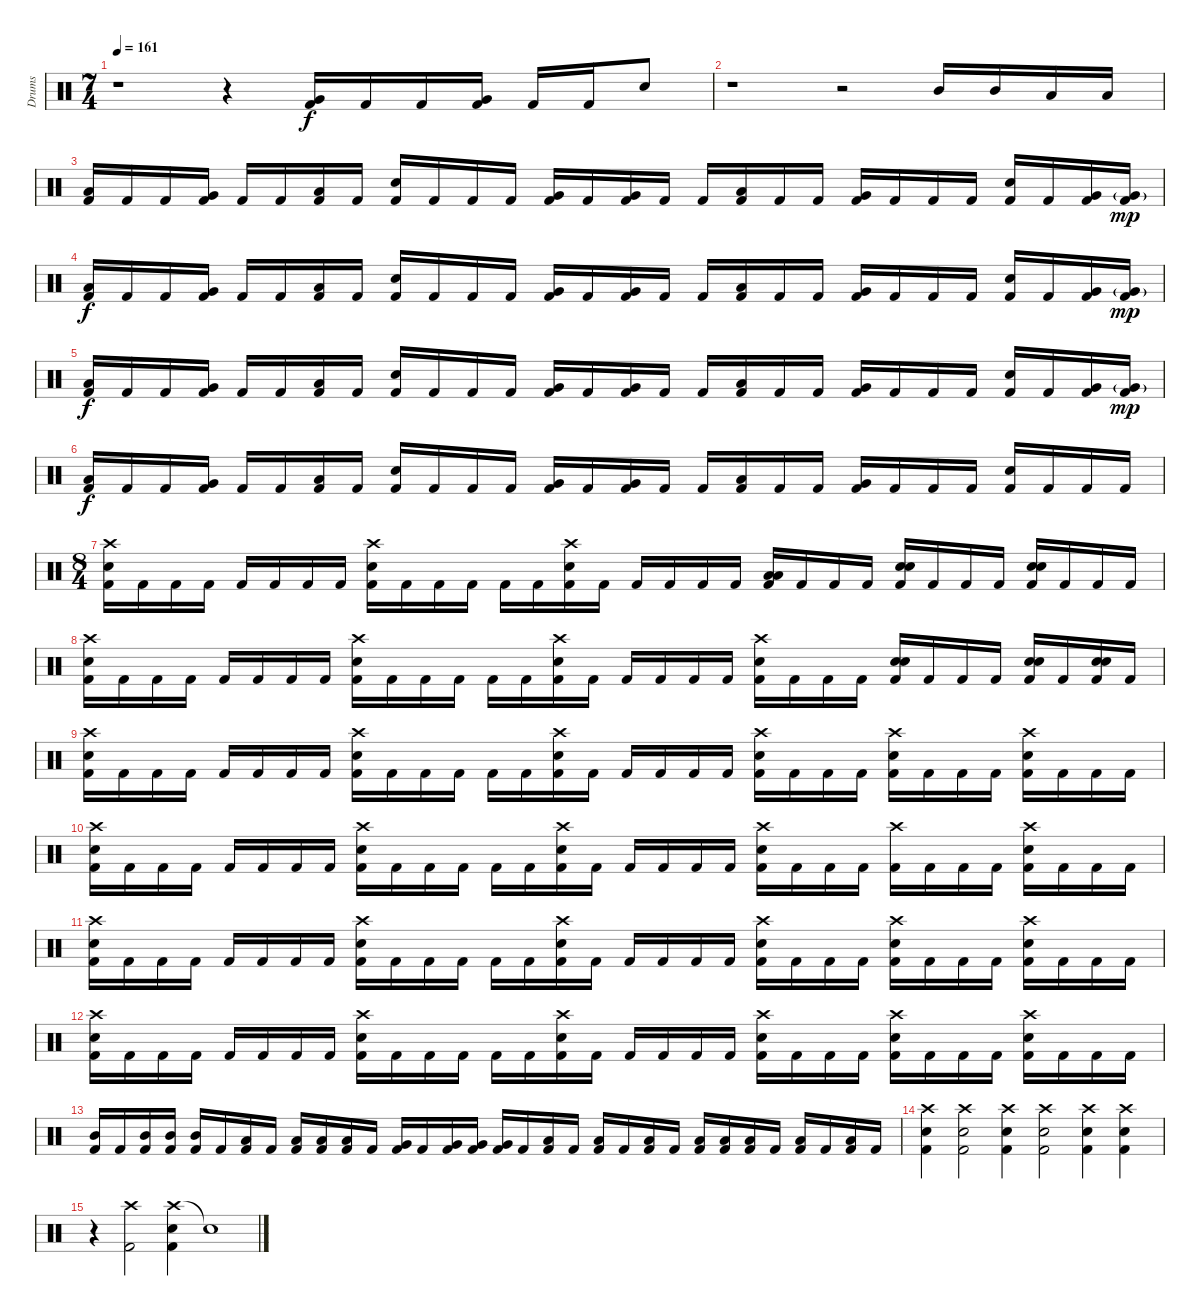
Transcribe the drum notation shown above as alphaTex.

\track ("Drums" "Drums") {instrument percussion}
\staff {score}
\articulation defaults
\ts (7 4)
\tempo 161
\clef neutral
\ks c
r.1{dy f} r.4 ("Very Low Tom (hit)" "Kick (hit) 2").16 "Kick (hit) 2".16 "Kick (hit) 2".16 ("Very Low Tom (hit)" "Kick (hit) 2").16 "Kick (hit) 2".16 "Kick (hit) 2".16 "Snare (hit) 2".8 |
r.1 r.2 "Mid Tom (hit)".16 "Mid Tom (hit)".16 "Low Tom (hit)".16 "Low Tom (hit)".16 |
("Low Floor Tom (hit)" "Kick (hit) 2").16 "Kick (hit) 2".16 "Kick (hit) 2".16 ("Very Low Tom (hit)" "Kick (hit) 2").16 "Kick (hit) 2".16 "Kick (hit) 2".16 ("Low Floor Tom (hit)" "Kick (hit) 2").16 "Kick (hit) 2".16 ("Snare (hit) 2" "Kick (hit) 2").16 "Kick (hit) 2".16 "Kick (hit) 2".16 "Kick (hit) 2".16 ("Very Low Tom (hit)" "Kick (hit) 2").16 "Kick (hit) 2".16 ("Very Low Tom (hit)" "Kick (hit) 2").16 "Kick (hit) 2".16 "Kick (hit) 2".16 ("Low Floor Tom (hit)" "Kick (hit) 2").16 "Kick (hit) 2".16 "Kick (hit) 2".16 ("Very Low Tom (hit)" "Kick (hit) 2").16 "Kick (hit) 2".16 "Kick (hit) 2".16 "Kick (hit) 2".16 ("Snare (hit) 2" "Kick (hit) 2").16 "Kick (hit) 2".16 ("Very Low Tom (hit)" "Kick (hit) 2").16 ("Very Low Tom (hit)"{g} "Kick (hit) 2").16{dy mp} |
("Low Floor Tom (hit)" "Kick (hit) 2").16{dy f} "Kick (hit) 2".16 "Kick (hit) 2".16 ("Very Low Tom (hit)" "Kick (hit) 2").16 "Kick (hit) 2".16 "Kick (hit) 2".16 ("Low Floor Tom (hit)" "Kick (hit) 2").16 "Kick (hit) 2".16 ("Snare (hit) 2" "Kick (hit) 2").16 "Kick (hit) 2".16 "Kick (hit) 2".16 "Kick (hit) 2".16 ("Very Low Tom (hit)" "Kick (hit) 2").16 "Kick (hit) 2".16 ("Very Low Tom (hit)" "Kick (hit) 2").16 "Kick (hit) 2".16 "Kick (hit) 2".16 ("Low Floor Tom (hit)" "Kick (hit) 2").16 "Kick (hit) 2".16 "Kick (hit) 2".16 ("Very Low Tom (hit)" "Kick (hit) 2").16 "Kick (hit) 2".16 "Kick (hit) 2".16 "Kick (hit) 2".16 ("Snare (hit) 2" "Kick (hit) 2").16 "Kick (hit) 2".16 ("Very Low Tom (hit)" "Kick (hit) 2").16 ("Very Low Tom (hit)"{g} "Kick (hit) 2").16{dy mp} |
("Low Floor Tom (hit)" "Kick (hit) 2").16{dy f} "Kick (hit) 2".16 "Kick (hit) 2".16 ("Very Low Tom (hit)" "Kick (hit) 2").16 "Kick (hit) 2".16 "Kick (hit) 2".16 ("Low Floor Tom (hit)" "Kick (hit) 2").16 "Kick (hit) 2".16 ("Snare (hit) 2" "Kick (hit) 2").16 "Kick (hit) 2".16 "Kick (hit) 2".16 "Kick (hit) 2".16 ("Very Low Tom (hit)" "Kick (hit) 2").16 "Kick (hit) 2".16 ("Very Low Tom (hit)" "Kick (hit) 2").16 "Kick (hit) 2".16 "Kick (hit) 2".16 ("Low Floor Tom (hit)" "Kick (hit) 2").16 "Kick (hit) 2".16 "Kick (hit) 2".16 ("Very Low Tom (hit)" "Kick (hit) 2").16 "Kick (hit) 2".16 "Kick (hit) 2".16 "Kick (hit) 2".16 ("Snare (hit) 2" "Kick (hit) 2").16 "Kick (hit) 2".16 ("Very Low Tom (hit)" "Kick (hit) 2").16 ("Very Low Tom (hit)"{g} "Kick (hit) 2").16{dy mp} |
("Low Floor Tom (hit)" "Kick (hit) 2").16{dy f} "Kick (hit) 2".16 "Kick (hit) 2".16 ("Very Low Tom (hit)" "Kick (hit) 2").16 "Kick (hit) 2".16 "Kick (hit) 2".16 ("Low Floor Tom (hit)" "Kick (hit) 2").16 "Kick (hit) 2".16 ("Snare (hit) 2" "Kick (hit) 2").16 "Kick (hit) 2".16 "Kick (hit) 2".16 "Kick (hit) 2".16 ("Very Low Tom (hit)" "Kick (hit) 2").16 "Kick (hit) 2".16 ("Very Low Tom (hit)" "Kick (hit) 2").16 "Kick (hit) 2".16 "Kick (hit) 2".16 ("Low Floor Tom (hit)" "Kick (hit) 2").16 "Kick (hit) 2".16 "Kick (hit) 2".16 ("Very Low Tom (hit)" "Kick (hit) 2").16 "Kick (hit) 2".16 "Kick (hit) 2".16 "Kick (hit) 2".16 ("Snare (hit) 2" "Kick (hit) 2").16 "Kick (hit) 2".16 "Kick (hit) 2".16 "Kick (hit) 2".16 |
\ts (8 4)
("Crash high (hit)" "Snare (hit) 2" "Kick (hit) 2").16 "Kick (hit) 2".16 "Kick (hit) 2".16 "Kick (hit) 2".16 "Kick (hit) 2".16 "Kick (hit) 2".16 "Kick (hit) 2".16 "Kick (hit) 2".16 ("Crash high (hit)" "Snare (hit) 2" "Kick (hit) 2").16 "Kick (hit) 2".16 "Kick (hit) 2".16 "Kick (hit) 2".16 "Kick (hit) 2".16 "Kick (hit) 2".16 ("Crash high (hit)" "Snare (hit) 2" "Kick (hit) 2").16 "Kick (hit) 2".16 "Kick (hit) 2".16 "Kick (hit) 2".16 "Kick (hit) 2".16 "Kick (hit) 2".16 ("Low Tom (hit)" "Low Tom (hit)" "Kick (hit) 2").16 "Kick (hit) 2".16 "Kick (hit) 2".16 "Kick (hit) 2".16 ("Snare (hit) 2" "Snare (hit) 2" "Kick (hit) 2").16 "Kick (hit) 2".16 "Kick (hit) 2".16 "Kick (hit) 2".16 ("Snare (hit) 2" "Snare (hit) 2" "Kick (hit) 2").16 "Kick (hit) 2".16 "Kick (hit) 2".16 "Kick (hit) 2".16 |
("Crash high (hit)" "Snare (hit) 2" "Kick (hit) 2").16 "Kick (hit) 2".16 "Kick (hit) 2".16 "Kick (hit) 2".16 "Kick (hit) 2".16 "Kick (hit) 2".16 "Kick (hit) 2".16 "Kick (hit) 2".16 ("Crash high (hit)" "Snare (hit) 2" "Kick (hit) 2").16 "Kick (hit) 2".16 "Kick (hit) 2".16 "Kick (hit) 2".16 "Kick (hit) 2".16 "Kick (hit) 2".16 ("Crash high (hit)" "Snare (hit) 2" "Kick (hit) 2").16 "Kick (hit) 2".16 "Kick (hit) 2".16 "Kick (hit) 2".16 "Kick (hit) 2".16 "Kick (hit) 2".16 ("Crash high (hit)" "Snare (hit) 2" "Kick (hit) 2").16 "Kick (hit) 2".16 "Kick (hit) 2".16 "Kick (hit) 2".16 ("Snare (hit) 2" "Snare (hit) 2" "Kick (hit) 2").16 "Kick (hit) 2".16 "Kick (hit) 2".16 "Kick (hit) 2".16 ("Snare (hit) 2" "Snare (hit) 2" "Kick (hit) 2").16 "Kick (hit) 2".16 ("Snare (hit) 2" "Snare (hit) 2" "Kick (hit) 2").16 "Kick (hit) 2".16 |
("Crash high (hit)" "Snare (hit) 2" "Kick (hit) 2").16 "Kick (hit) 2".16 "Kick (hit) 2".16 "Kick (hit) 2".16 "Kick (hit) 2".16 "Kick (hit) 2".16 "Kick (hit) 2".16 "Kick (hit) 2".16 ("Crash high (hit)" "Snare (hit) 2" "Kick (hit) 2").16 "Kick (hit) 2".16 "Kick (hit) 2".16 "Kick (hit) 2".16 "Kick (hit) 2".16 "Kick (hit) 2".16 ("Crash high (hit)" "Snare (hit) 2" "Kick (hit) 2").16 "Kick (hit) 2".16 "Kick (hit) 2".16 "Kick (hit) 2".16 "Kick (hit) 2".16 "Kick (hit) 2".16 ("Crash high (hit)" "Snare (hit) 2" "Kick (hit) 2").16 "Kick (hit) 2".16 "Kick (hit) 2".16 "Kick (hit) 2".16 ("Crash high (hit)" "Snare (hit) 2" "Kick (hit) 2").16 "Kick (hit) 2".16 "Kick (hit) 2".16 "Kick (hit) 2".16 ("Crash high (hit)" "Snare (hit) 2" "Kick (hit) 2").16 "Kick (hit) 2".16 "Kick (hit) 2".16 "Kick (hit) 2".16 |
("Crash high (hit)" "Snare (hit) 2" "Kick (hit) 2").16 "Kick (hit) 2".16 "Kick (hit) 2".16 "Kick (hit) 2".16 "Kick (hit) 2".16 "Kick (hit) 2".16 "Kick (hit) 2".16 "Kick (hit) 2".16 ("Crash high (hit)" "Snare (hit) 2" "Kick (hit) 2").16 "Kick (hit) 2".16 "Kick (hit) 2".16 "Kick (hit) 2".16 "Kick (hit) 2".16 "Kick (hit) 2".16 ("Crash high (hit)" "Snare (hit) 2" "Kick (hit) 2").16 "Kick (hit) 2".16 "Kick (hit) 2".16 "Kick (hit) 2".16 "Kick (hit) 2".16 "Kick (hit) 2".16 ("Crash high (hit)" "Snare (hit) 2" "Kick (hit) 2").16 "Kick (hit) 2".16 "Kick (hit) 2".16 "Kick (hit) 2".16 ("Crash high (hit)" "Kick (hit) 2").16 "Kick (hit) 2".16 "Kick (hit) 2".16 "Kick (hit) 2".16 ("Crash high (hit)" "Snare (hit) 2" "Kick (hit) 2").16 "Kick (hit) 2".16 "Kick (hit) 2".16 "Kick (hit) 2".16 |
("Crash high (hit)" "Snare (hit) 2" "Kick (hit) 2").16 "Kick (hit) 2".16 "Kick (hit) 2".16 "Kick (hit) 2".16 "Kick (hit) 2".16 "Kick (hit) 2".16 "Kick (hit) 2".16 "Kick (hit) 2".16 ("Crash high (hit)" "Snare (hit) 2" "Kick (hit) 2").16 "Kick (hit) 2".16 "Kick (hit) 2".16 "Kick (hit) 2".16 "Kick (hit) 2".16 "Kick (hit) 2".16 ("Crash high (hit)" "Snare (hit) 2" "Kick (hit) 2").16 "Kick (hit) 2".16 "Kick (hit) 2".16 "Kick (hit) 2".16 "Kick (hit) 2".16 "Kick (hit) 2".16 ("Crash high (hit)" "Snare (hit) 2" "Kick (hit) 2").16 "Kick (hit) 2".16 "Kick (hit) 2".16 "Kick (hit) 2".16 ("Crash high (hit)" "Snare (hit) 2" "Kick (hit) 2").16 "Kick (hit) 2".16 "Kick (hit) 2".16 "Kick (hit) 2".16 ("Crash high (hit)" "Snare (hit) 2" "Kick (hit) 2").16 "Kick (hit) 2".16 "Kick (hit) 2".16 "Kick (hit) 2".16 |
("Crash high (hit)" "Snare (hit) 2" "Kick (hit) 2").16 "Kick (hit) 2".16 "Kick (hit) 2".16 "Kick (hit) 2".16 "Kick (hit) 2".16 "Kick (hit) 2".16 "Kick (hit) 2".16 "Kick (hit) 2".16 ("Crash high (hit)" "Snare (hit) 2" "Kick (hit) 2").16 "Kick (hit) 2".16 "Kick (hit) 2".16 "Kick (hit) 2".16 "Kick (hit) 2".16 "Kick (hit) 2".16 ("Crash high (hit)" "Snare (hit) 2" "Kick (hit) 2").16 "Kick (hit) 2".16 "Kick (hit) 2".16 "Kick (hit) 2".16 "Kick (hit) 2".16 "Kick (hit) 2".16 ("Crash high (hit)" "Snare (hit) 2" "Kick (hit) 2").16 "Kick (hit) 2".16 "Kick (hit) 2".16 "Kick (hit) 2".16 ("Crash high (hit)" "Snare (hit) 2" "Kick (hit) 2").16 "Kick (hit) 2".16 "Kick (hit) 2".16 "Kick (hit) 2".16 ("Crash high (hit)" "Snare (hit) 2" "Kick (hit) 2").16 "Kick (hit) 2".16 "Kick (hit) 2".16 "Kick (hit) 2".16 |
("Mid Tom (hit)" "Kick (hit) 2").16 "Kick (hit) 2".16 ("Mid Tom (hit)" "Kick (hit) 2").16 ("Mid Tom (hit)" "Kick (hit) 2").16 ("Mid Tom (hit)" "Kick (hit) 2").16 "Kick (hit) 2".16 ("Low Tom (hit)" "Kick (hit) 2").16 "Kick (hit) 2".16 ("Low Tom (hit)" "Kick (hit) 2").16 ("Low Tom (hit)" "Kick (hit) 2").16 ("Low Tom (hit)" "Kick (hit) 2").16 "Kick (hit) 2".16 ("Very Low Tom (hit)" "Kick (hit) 2").16 "Kick (hit) 2".16 ("Very Low Tom (hit)" "Kick (hit) 2").16 ("Very Low Tom (hit)" "Kick (hit) 2").16 ("Very Low Tom (hit)" "Kick (hit) 2").16 "Kick (hit) 2".16 ("Low Floor Tom (hit)" "Kick (hit) 2").16 "Kick (hit) 2".16 ("Low Floor Tom (hit)" "Kick (hit) 2").16 "Kick (hit) 2".16 ("Low Floor Tom (hit)" "Kick (hit) 2").16 "Kick (hit) 2".16 ("Low Floor Tom (hit)" "Kick (hit) 2").16 ("Low Floor Tom (hit)" "Kick (hit) 2").16 ("Low Floor Tom (hit)" "Kick (hit) 2").16 "Kick (hit) 2".16 ("Low Floor Tom (hit)" "Kick (hit) 2").16 "Kick (hit) 2".16 ("Low Floor Tom (hit)" "Kick (hit) 2").16 "Kick (hit) 2".16 |
("Crash high (hit)" "Snare (hit) 2" "Kick (hit) 2").4 ("Crash high (hit)" "Snare (hit) 2" "Kick (hit) 2").2 ("Crash high (hit)" "Snare (hit) 2" "Kick (hit) 2").4 ("Crash high (hit)" "Snare (hit) 2" "Kick (hit) 2").2 ("Crash high (hit)" "Snare (hit) 2" "Kick (hit) 2").4 ("Crash high (hit)" "Snare (hit) 2" "Kick (hit) 2").4 |
r.4 ("Crash high (hit)" "Kick (hit) 2").2 ("Crash high (hit)" "Snare (hit) 2" "Kick (hit) 2").4 "Snare (hit)"{t}.1
